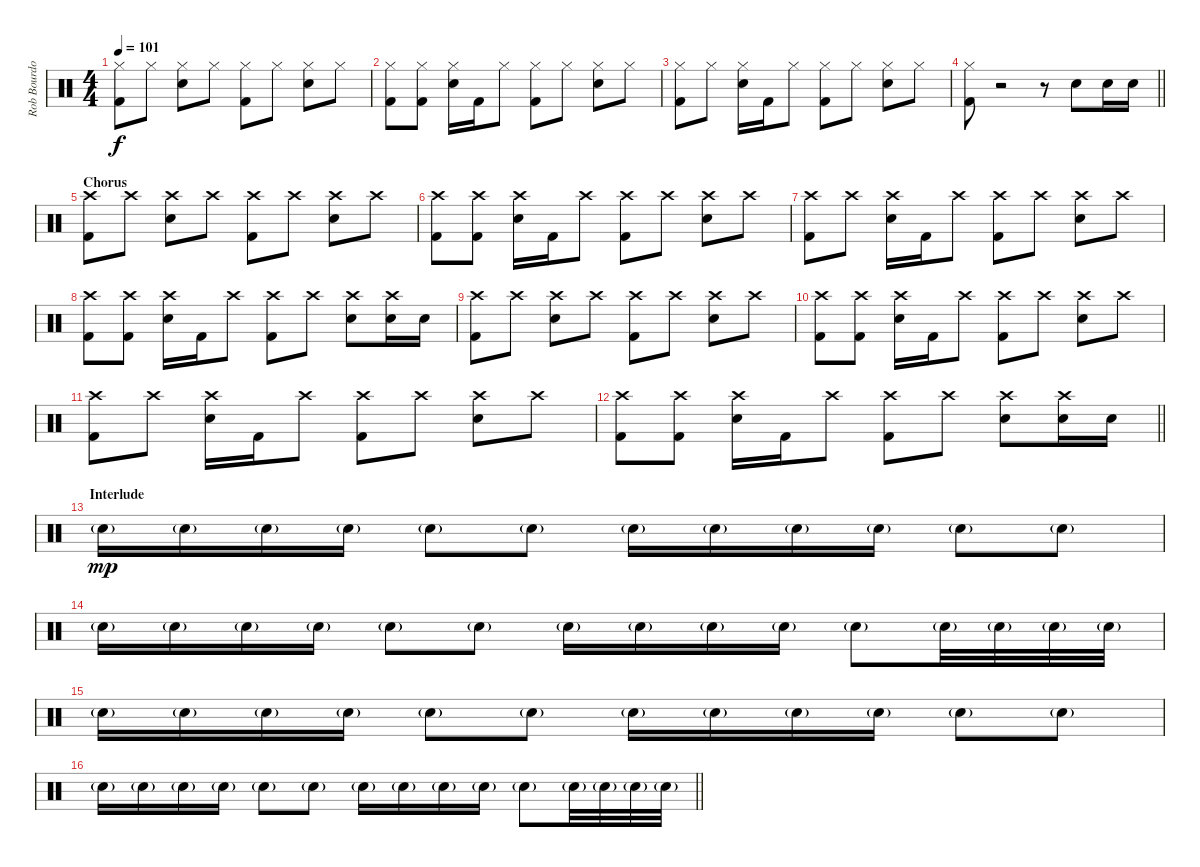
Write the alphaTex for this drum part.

\track ("Rob Bourdon" "Rob Bourdo") {instrument percussion}
\staff {score}
\articulation defaults
\ts (4 4)
\tempo 101
\clef neutral
\ks c
("Hi-Hat (closed)" "Kick (hit) 2").8{dy f} "Hi-Hat (closed)".8 ("Hi-Hat (closed)" "Electric Snare (hit)").8 "Hi-Hat (closed)".8 ("Hi-Hat (closed)" "Kick (hit) 2").8 "Hi-Hat (closed)".8 ("Hi-Hat (closed)" "Electric Snare (hit)").8 "Hi-Hat (closed)".8 |
("Hi-Hat (closed)" "Kick (hit) 2").8 ("Hi-Hat (closed)" "Kick (hit) 2").8 ("Hi-Hat (closed)" "Electric Snare (hit)").16 "Kick (hit) 2".16 "Hi-Hat (closed)".8 ("Hi-Hat (closed)" "Kick (hit) 2").8 "Hi-Hat (closed)".8 ("Hi-Hat (closed)" "Electric Snare (hit)").8 "Hi-Hat (closed)".8 |
("Hi-Hat (closed)" "Kick (hit) 2").8 "Hi-Hat (closed)".8 ("Hi-Hat (closed)" "Electric Snare (hit)").16 "Kick (hit) 2".16 "Hi-Hat (closed)".8 ("Hi-Hat (closed)" "Kick (hit) 2").8 "Hi-Hat (closed)".8 ("Hi-Hat (closed)" "Electric Snare (hit)").8 "Hi-Hat (closed)".8 |
\barLineRight lightlight
("Hi-Hat (closed)" "Kick (hit) 2").8 r.2 r.8 "Electric Snare (hit)".8 "Electric Snare (hit)".16 "Electric Snare (hit)".16 |
\section ("" "Chorus")
("Crash high (hit)" "Kick (hit) 2").8 "Crash high (hit)".8 ("Crash high (hit)" "Electric Snare (hit)").8 "Crash high (hit)".8 ("Crash high (hit)" "Kick (hit) 2").8 "Crash high (hit)".8 ("Crash high (hit)" "Electric Snare (hit)").8 "Crash high (hit)".8 |
("Crash high (hit)" "Kick (hit) 2").8 ("Crash high (hit)" "Kick (hit) 2").8 ("Crash high (hit)" "Electric Snare (hit)").16 "Kick (hit) 2".16 "Crash high (hit)".8 ("Crash high (hit)" "Kick (hit) 2").8 "Crash high (hit)".8 ("Crash high (hit)" "Electric Snare (hit)").8 "Crash high (hit)".8 |
("Crash high (hit)" "Kick (hit) 2").8 "Crash high (hit)".8 ("Crash high (hit)" "Electric Snare (hit)").16 "Kick (hit) 2".16 "Crash high (hit)".8 ("Crash high (hit)" "Kick (hit) 2").8 "Crash high (hit)".8 ("Crash high (hit)" "Electric Snare (hit)").8 "Crash high (hit)".8 |
("Crash high (hit)" "Kick (hit) 2").8 ("Crash high (hit)" "Kick (hit) 2").8 ("Crash high (hit)" "Electric Snare (hit)").16 "Kick (hit) 2".16 "Crash high (hit)".8 ("Crash high (hit)" "Kick (hit) 2").8 "Crash high (hit)".8 ("Crash high (hit)" "Electric Snare (hit)").8 ("Crash high (hit)" "Electric Snare (hit)").16 "Electric Snare (hit)".16 |
("Crash high (hit)" "Kick (hit) 2").8 "Crash high (hit)".8 ("Crash high (hit)" "Electric Snare (hit)").8 "Crash high (hit)".8 ("Crash high (hit)" "Kick (hit) 2").8 "Crash high (hit)".8 ("Crash high (hit)" "Electric Snare (hit)").8 "Crash high (hit)".8 |
("Crash high (hit)" "Kick (hit) 2").8 ("Crash high (hit)" "Kick (hit) 2").8 ("Crash high (hit)" "Electric Snare (hit)").16 "Kick (hit) 2".16 "Crash high (hit)".8 ("Crash high (hit)" "Kick (hit) 2").8 "Crash high (hit)".8 ("Crash high (hit)" "Electric Snare (hit)").8 "Crash high (hit)".8 |
("Crash high (hit)" "Kick (hit) 2").8 "Crash high (hit)".8 ("Crash high (hit)" "Electric Snare (hit)").16 "Kick (hit) 2".16 "Crash high (hit)".8 ("Crash high (hit)" "Kick (hit) 2").8 "Crash high (hit)".8 ("Crash high (hit)" "Electric Snare (hit)").8 "Crash high (hit)".8 |
\barLineRight lightlight
("Crash high (hit)" "Kick (hit) 2").8 ("Crash high (hit)" "Kick (hit) 2").8 ("Crash high (hit)" "Electric Snare (hit)").16 "Kick (hit) 2".16 "Crash high (hit)".8 ("Crash high (hit)" "Kick (hit) 2").8 "Crash high (hit)".8 ("Crash high (hit)" "Electric Snare (hit)").8 ("Crash high (hit)" "Electric Snare (hit)").16 "Electric Snare (hit)".16 |
\section ("" "Interlude")
"Electric Snare (hit)"{g}.16{dy mp} "Electric Snare (hit)"{g}.16 "Electric Snare (hit)"{g}.16 "Electric Snare (hit)"{g}.16 "Electric Snare (hit)"{g}.8 "Electric Snare (hit)"{g}.8 "Electric Snare (hit)"{g}.16 "Electric Snare (hit)"{g}.16 "Electric Snare (hit)"{g}.16 "Electric Snare (hit)"{g}.16 "Electric Snare (hit)"{g}.8 "Electric Snare (hit)"{g}.8 |
"Electric Snare (hit)"{g}.16 "Electric Snare (hit)"{g}.16 "Electric Snare (hit)"{g}.16 "Electric Snare (hit)"{g}.16 "Electric Snare (hit)"{g}.8 "Electric Snare (hit)"{g}.8 "Electric Snare (hit)"{g}.16 "Electric Snare (hit)"{g}.16 "Electric Snare (hit)"{g}.16 "Electric Snare (hit)"{g}.16 "Electric Snare (hit)"{g}.8 "Electric Snare (hit)"{g}.32 "Electric Snare (hit)"{g}.32 "Electric Snare (hit)"{g}.32 "Electric Snare (hit)"{g}.32 |
"Electric Snare (hit)"{g}.16 "Electric Snare (hit)"{g}.16 "Electric Snare (hit)"{g}.16 "Electric Snare (hit)"{g}.16 "Electric Snare (hit)"{g}.8 "Electric Snare (hit)"{g}.8 "Electric Snare (hit)"{g}.16 "Electric Snare (hit)"{g}.16 "Electric Snare (hit)"{g}.16 "Electric Snare (hit)"{g}.16 "Electric Snare (hit)"{g}.8 "Electric Snare (hit)"{g}.8 |
\barLineRight lightlight "Electric Snare (hit)"{g}.16 "Electric Snare (hit)"{g}.16 "Electric Snare (hit)"{g}.16 "Electric Snare (hit)"{g}.16 "Electric Snare (hit)"{g}.8 "Electric Snare (hit)"{g}.8 "Electric Snare (hit)"{g}.16 "Electric Snare (hit)"{g}.16 "Electric Snare (hit)"{g}.16 "Electric Snare (hit)"{g}.16 "Electric Snare (hit)"{g}.8 "Electric Snare (hit)"{g}.32 "Electric Snare (hit)"{g}.32 "Electric Snare (hit)"{g}.32 "Electric Snare (hit)"{g}.32
